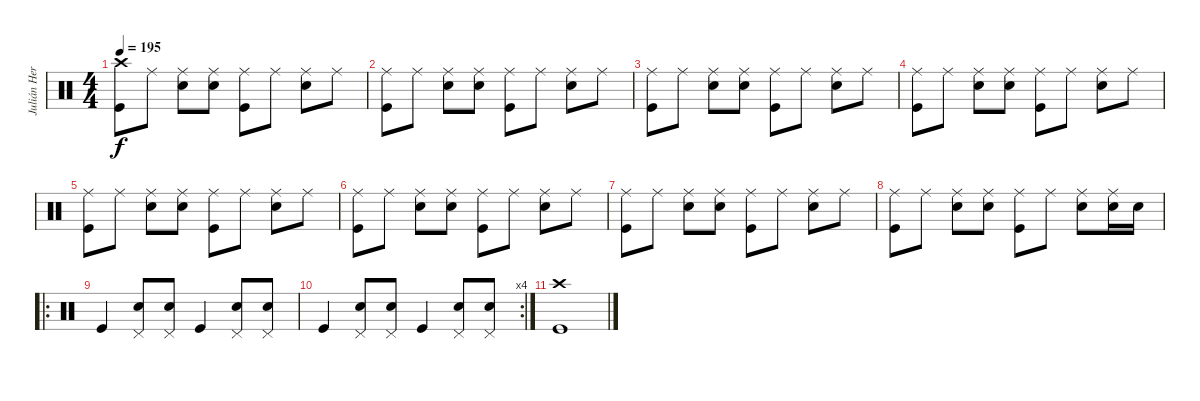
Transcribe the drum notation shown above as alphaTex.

\track ("Julián Hernandez" "Julián Her") {instrument percussion}
\staff {score}
\articulation defaults
\ts (4 4)
\tempo 195
\clef neutral
\ks c
("Crash high (hit)" "Kick (hit)").8{dy f} "Ride (middle)".8 ("Ride (middle)" "Electric Snare (hit)").8 ("Ride (middle)" "Electric Snare (hit)").8 ("Ride (middle)" "Kick (hit)").8 "Ride (middle)".8 ("Ride (middle)" "Electric Snare (hit)").8 "Ride (middle)".8 |
("Ride (middle)" "Kick (hit)").8 "Ride (middle)".8 ("Ride (middle)" "Electric Snare (hit)").8 ("Ride (middle)" "Electric Snare (hit)").8 ("Ride (middle)" "Kick (hit)").8 "Ride (middle)".8 ("Ride (middle)" "Electric Snare (hit)").8 "Ride (middle)".8 |
("Ride (middle)" "Kick (hit)").8 "Ride (middle)".8 ("Ride (middle)" "Electric Snare (hit)").8 ("Ride (middle)" "Electric Snare (hit)").8 ("Ride (middle)" "Kick (hit)").8 "Ride (middle)".8 ("Ride (middle)" "Electric Snare (hit)").8 "Ride (middle)".8 |
("Ride (middle)" "Kick (hit)").8 "Ride (middle)".8 ("Ride (middle)" "Electric Snare (hit)").8 ("Ride (middle)" "Electric Snare (hit)").8 ("Ride (middle)" "Kick (hit)").8 "Ride (middle)".8 ("Ride (middle)" "Electric Snare (hit)").8 "Ride (middle)".8 |
("Ride (middle)" "Kick (hit)").8 "Ride (middle)".8 ("Ride (middle)" "Electric Snare (hit)").8 ("Ride (middle)" "Electric Snare (hit)").8 ("Ride (middle)" "Kick (hit)").8 "Ride (middle)".8 ("Ride (middle)" "Electric Snare (hit)").8 "Ride (middle)".8 |
("Ride (middle)" "Kick (hit)").8 "Ride (middle)".8 ("Ride (middle)" "Electric Snare (hit)").8 ("Ride (middle)" "Electric Snare (hit)").8 ("Ride (middle)" "Kick (hit)").8 "Ride (middle)".8 ("Ride (middle)" "Electric Snare (hit)").8 "Ride (middle)".8 |
("Ride (middle)" "Kick (hit)").8 "Ride (middle)".8 ("Ride (middle)" "Electric Snare (hit)").8 ("Ride (middle)" "Electric Snare (hit)").8 ("Ride (middle)" "Kick (hit)").8 "Ride (middle)".8 ("Ride (middle)" "Electric Snare (hit)").8 "Ride (middle)".8 |
("Ride (middle)" "Kick (hit)").8 "Ride (middle)".8 ("Ride (middle)" "Electric Snare (hit)").8 ("Ride (middle)" "Electric Snare (hit)").8 ("Ride (middle)" "Kick (hit)").8 "Ride (middle)".8 ("Ride (middle)" "Electric Snare (hit)").8 ("Ride (middle)" "Electric Snare (hit)").16 "Electric Snare (hit)".16 |
\ro "Kick (hit)".4
("Electric Snare (hit)" "Pedal Hi-Hat (hit)").8 ("Electric Snare (hit)" "Pedal Hi-Hat (hit)").8 "Kick (hit)".4 ("Electric Snare (hit)" "Pedal Hi-Hat (hit)").8 ("Electric Snare (hit)" "Pedal Hi-Hat (hit)").8 |
\rc 4 "Kick (hit)".4
("Electric Snare (hit)" "Pedal Hi-Hat (hit)").8 ("Electric Snare (hit)" "Pedal Hi-Hat (hit)").8 "Kick (hit)".4 ("Electric Snare (hit)" "Pedal Hi-Hat (hit)").8 ("Electric Snare (hit)" "Pedal Hi-Hat (hit)").8 |
("Crash high (hit)" "Kick (hit)").1
